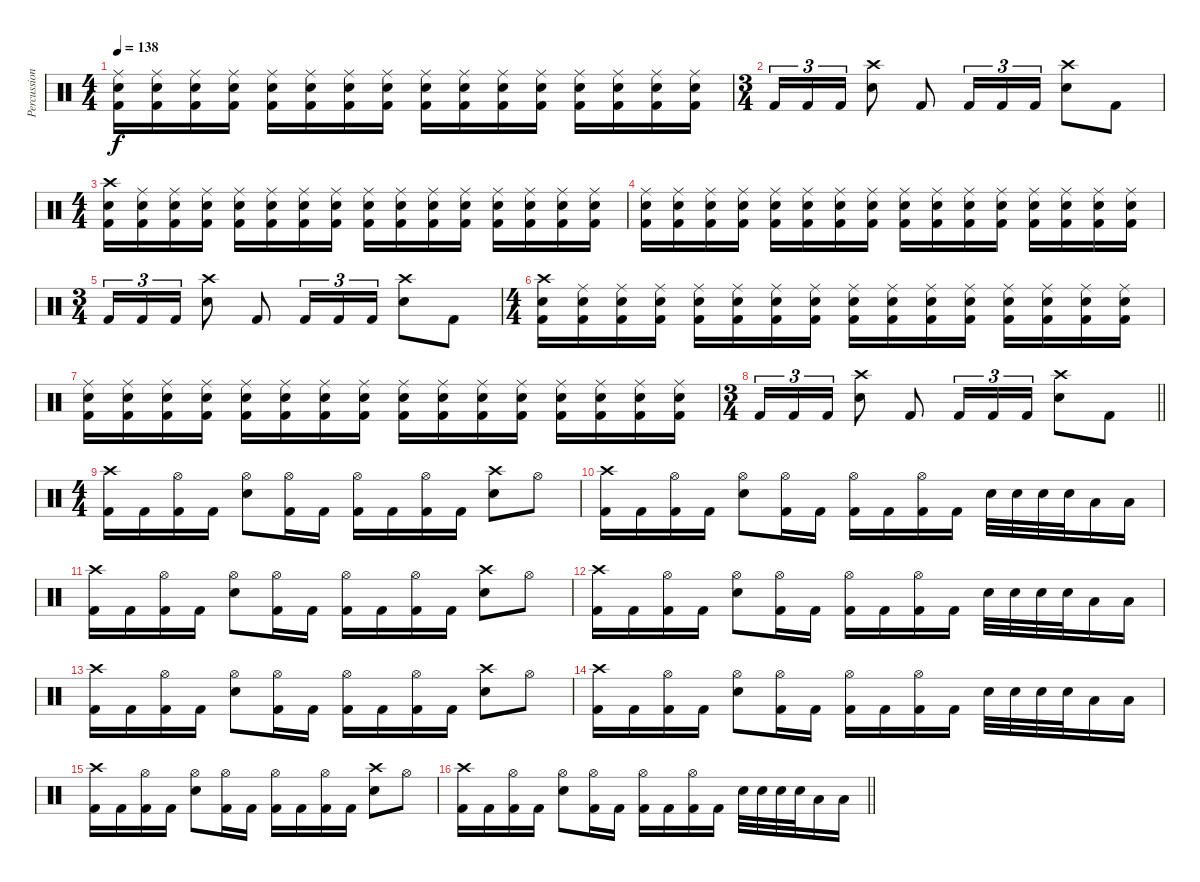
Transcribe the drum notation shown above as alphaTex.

\track ("Percussion" "Percussion") {instrument percussion}
\staff {score}
\articulation defaults
\ts (4 4)
\tempo 138
\clef neutral
\ks c
("Kick (hit) 2" "Electric Snare (hit)" "Ride (middle)").16{dy f} ("Kick (hit) 2" "Electric Snare (hit)" "Ride (middle)").16 ("Kick (hit) 2" "Electric Snare (hit)" "Ride (middle)").16 ("Kick (hit) 2" "Electric Snare (hit)" "Ride (middle)").16 ("Kick (hit) 2" "Electric Snare (hit)" "Ride (middle)").16 ("Kick (hit) 2" "Electric Snare (hit)" "Ride (middle)").16 ("Kick (hit) 2" "Electric Snare (hit)" "Ride (middle)").16 ("Kick (hit) 2" "Electric Snare (hit)" "Ride (middle)").16 ("Kick (hit) 2" "Electric Snare (hit)" "Ride (middle)").16 ("Kick (hit) 2" "Electric Snare (hit)" "Ride (middle)").16 ("Kick (hit) 2" "Electric Snare (hit)" "Ride (middle)").16 ("Kick (hit) 2" "Electric Snare (hit)" "Ride (middle)").16 ("Kick (hit) 2" "Electric Snare (hit)" "Ride (middle)").16 ("Kick (hit) 2" "Electric Snare (hit)" "Ride (middle)").16 ("Kick (hit) 2" "Electric Snare (hit)" "Ride (middle)").16 ("Kick (hit) 2" "Electric Snare (hit)" "Ride (middle)").16 |
\ts (3 4)
"Kick (hit) 2".16{tu (3 2)} "Kick (hit) 2".16{tu (3 2)} "Kick (hit) 2".16{tu (3 2)} ("Electric Snare (hit)" "Crash high (hit)").8 "Kick (hit) 2".8 "Kick (hit) 2".16{tu (3 2)} "Kick (hit) 2".16{tu (3 2)} "Kick (hit) 2".16{tu (3 2)} ("Electric Snare (hit)" "Crash high (hit)").8 "Kick (hit) 2".8 |
\ts (4 4)
("Kick (hit) 2" "Electric Snare (hit)" "Crash high (hit)").16 ("Kick (hit) 2" "Electric Snare (hit)" "Ride (middle)").16 ("Kick (hit) 2" "Electric Snare (hit)" "Ride (middle)").16 ("Kick (hit) 2" "Electric Snare (hit)" "Ride (middle)").16 ("Kick (hit) 2" "Electric Snare (hit)" "Ride (middle)").16 ("Kick (hit) 2" "Electric Snare (hit)" "Ride (middle)").16 ("Kick (hit) 2" "Electric Snare (hit)" "Ride (middle)").16 ("Kick (hit) 2" "Electric Snare (hit)" "Ride (middle)").16 ("Kick (hit) 2" "Electric Snare (hit)" "Ride (middle)").16 ("Kick (hit) 2" "Electric Snare (hit)" "Ride (middle)").16 ("Kick (hit) 2" "Electric Snare (hit)" "Ride (middle)").16 ("Kick (hit) 2" "Electric Snare (hit)" "Ride (middle)").16 ("Kick (hit) 2" "Electric Snare (hit)" "Ride (middle)").16 ("Kick (hit) 2" "Electric Snare (hit)" "Ride (middle)").16 ("Kick (hit) 2" "Electric Snare (hit)" "Ride (middle)").16 ("Kick (hit) 2" "Electric Snare (hit)" "Ride (middle)").16 |
("Kick (hit) 2" "Electric Snare (hit)" "Ride (middle)").16 ("Kick (hit) 2" "Electric Snare (hit)" "Ride (middle)").16 ("Kick (hit) 2" "Electric Snare (hit)" "Ride (middle)").16 ("Kick (hit) 2" "Electric Snare (hit)" "Ride (middle)").16 ("Kick (hit) 2" "Electric Snare (hit)" "Ride (middle)").16 ("Kick (hit) 2" "Electric Snare (hit)" "Ride (middle)").16 ("Kick (hit) 2" "Electric Snare (hit)" "Ride (middle)").16 ("Kick (hit) 2" "Electric Snare (hit)" "Ride (middle)").16 ("Kick (hit) 2" "Electric Snare (hit)" "Ride (middle)").16 ("Kick (hit) 2" "Electric Snare (hit)" "Ride (middle)").16 ("Kick (hit) 2" "Electric Snare (hit)" "Ride (middle)").16 ("Kick (hit) 2" "Electric Snare (hit)" "Ride (middle)").16 ("Kick (hit) 2" "Electric Snare (hit)" "Ride (middle)").16 ("Kick (hit) 2" "Electric Snare (hit)" "Ride (middle)").16 ("Kick (hit) 2" "Electric Snare (hit)" "Ride (middle)").16 ("Kick (hit) 2" "Electric Snare (hit)" "Ride (middle)").16 |
\ts (3 4)
"Kick (hit) 2".16{tu (3 2)} "Kick (hit) 2".16{tu (3 2)} "Kick (hit) 2".16{tu (3 2)} ("Electric Snare (hit)" "Crash high (hit)").8 "Kick (hit) 2".8 "Kick (hit) 2".16{tu (3 2)} "Kick (hit) 2".16{tu (3 2)} "Kick (hit) 2".16{tu (3 2)} ("Electric Snare (hit)" "Crash high (hit)").8 "Kick (hit) 2".8 |
\ts (4 4)
("Kick (hit) 2" "Electric Snare (hit)" "Crash high (hit)").16 ("Kick (hit) 2" "Electric Snare (hit)" "Ride (middle)").16 ("Kick (hit) 2" "Electric Snare (hit)" "Ride (middle)").16 ("Kick (hit) 2" "Electric Snare (hit)" "Ride (middle)").16 ("Kick (hit) 2" "Electric Snare (hit)" "Ride (middle)").16 ("Kick (hit) 2" "Electric Snare (hit)" "Ride (middle)").16 ("Kick (hit) 2" "Electric Snare (hit)" "Ride (middle)").16 ("Kick (hit) 2" "Electric Snare (hit)" "Ride (middle)").16 ("Kick (hit) 2" "Electric Snare (hit)" "Ride (middle)").16 ("Kick (hit) 2" "Electric Snare (hit)" "Ride (middle)").16 ("Kick (hit) 2" "Electric Snare (hit)" "Ride (middle)").16 ("Kick (hit) 2" "Electric Snare (hit)" "Ride (middle)").16 ("Kick (hit) 2" "Electric Snare (hit)" "Ride (middle)").16 ("Kick (hit) 2" "Electric Snare (hit)" "Ride (middle)").16 ("Kick (hit) 2" "Electric Snare (hit)" "Ride (middle)").16 ("Kick (hit) 2" "Electric Snare (hit)" "Ride (middle)").16 |
("Kick (hit) 2" "Electric Snare (hit)" "Ride (middle)").16 ("Kick (hit) 2" "Electric Snare (hit)" "Ride (middle)").16 ("Kick (hit) 2" "Electric Snare (hit)" "Ride (middle)").16 ("Kick (hit) 2" "Electric Snare (hit)" "Ride (middle)").16 ("Kick (hit) 2" "Electric Snare (hit)" "Ride (middle)").16 ("Kick (hit) 2" "Electric Snare (hit)" "Ride (middle)").16 ("Kick (hit) 2" "Electric Snare (hit)" "Ride (middle)").16 ("Kick (hit) 2" "Electric Snare (hit)" "Ride (middle)").16 ("Kick (hit) 2" "Electric Snare (hit)" "Ride (middle)").16 ("Kick (hit) 2" "Electric Snare (hit)" "Ride (middle)").16 ("Kick (hit) 2" "Electric Snare (hit)" "Ride (middle)").16 ("Kick (hit) 2" "Electric Snare (hit)" "Ride (middle)").16 ("Kick (hit) 2" "Electric Snare (hit)" "Ride (middle)").16 ("Kick (hit) 2" "Electric Snare (hit)" "Ride (middle)").16 ("Kick (hit) 2" "Electric Snare (hit)" "Ride (middle)").16 ("Kick (hit) 2" "Electric Snare (hit)" "Ride (middle)").16 |
\ts (3 4)
\barLineRight lightlight "Kick (hit) 2".16{tu (3 2)} "Kick (hit) 2".16{tu (3 2)} "Kick (hit) 2".16{tu (3 2)}
("Electric Snare (hit)" "Crash high (hit)").8 "Kick (hit) 2".8 "Kick (hit) 2".16{tu (3 2)} "Kick (hit) 2".16{tu (3 2)} "Kick (hit) 2".16{tu (3 2)} ("Electric Snare (hit)" "Crash high (hit)").8 "Kick (hit) 2".8 |
\ts (4 4)
\section ("" "")
("Kick (hit) 2" "Crash high (hit)").16 "Kick (hit) 2".16 ("Kick (hit) 2" "Hi-Hat (open)").16 "Kick (hit) 2".16 ("Electric Snare (hit)" "Hi-Hat (open)").8 ("Kick (hit) 2" "Hi-Hat (open)").16 "Kick (hit) 2".16 ("Kick (hit) 2" "Hi-Hat (open)").16 "Kick (hit) 2".16 ("Kick (hit) 2" "Hi-Hat (open)").16 "Kick (hit) 2".16 ("Electric Snare (hit)" "Crash high (hit)").8 "Hi-Hat (open)".8 |
("Kick (hit) 2" "Crash high (hit)").16 "Kick (hit) 2".16 ("Kick (hit) 2" "Hi-Hat (open)").16 "Kick (hit) 2".16 ("Electric Snare (hit)" "Hi-Hat (open)").8 ("Kick (hit) 2" "Hi-Hat (open)").16 "Kick (hit) 2".16 ("Kick (hit) 2" "Hi-Hat (open)").16 "Kick (hit) 2".16 ("Kick (hit) 2" "Hi-Hat (open)").16 "Kick (hit) 2".16 "Electric Snare (hit)".32 "Electric Snare (hit)".32 "Electric Snare (hit)".32 "Electric Snare (hit)".32 "Low Tom (hit)".16 "Low Tom (hit)".16 |
("Kick (hit) 2" "Crash high (hit)").16 "Kick (hit) 2".16 ("Kick (hit) 2" "Hi-Hat (open)").16 "Kick (hit) 2".16 ("Electric Snare (hit)" "Hi-Hat (open)").8 ("Kick (hit) 2" "Hi-Hat (open)").16 "Kick (hit) 2".16 ("Kick (hit) 2" "Hi-Hat (open)").16 "Kick (hit) 2".16 ("Kick (hit) 2" "Hi-Hat (open)").16 "Kick (hit) 2".16 ("Electric Snare (hit)" "Crash high (hit)").8 "Hi-Hat (open)".8 |
("Kick (hit) 2" "Crash high (hit)").16 "Kick (hit) 2".16 ("Kick (hit) 2" "Hi-Hat (open)").16 "Kick (hit) 2".16 ("Electric Snare (hit)" "Hi-Hat (open)").8 ("Kick (hit) 2" "Hi-Hat (open)").16 "Kick (hit) 2".16 ("Kick (hit) 2" "Hi-Hat (open)").16 "Kick (hit) 2".16 ("Kick (hit) 2" "Hi-Hat (open)").16 "Kick (hit) 2".16 "Electric Snare (hit)".32 "Electric Snare (hit)".32 "Electric Snare (hit)".32 "Electric Snare (hit)".32 "Low Tom (hit)".16 "Low Tom (hit)".16 |
("Kick (hit) 2" "Crash high (hit)").16 "Kick (hit) 2".16 ("Kick (hit) 2" "Hi-Hat (open)").16 "Kick (hit) 2".16 ("Electric Snare (hit)" "Hi-Hat (open)").8 ("Kick (hit) 2" "Hi-Hat (open)").16 "Kick (hit) 2".16 ("Kick (hit) 2" "Hi-Hat (open)").16 "Kick (hit) 2".16 ("Kick (hit) 2" "Hi-Hat (open)").16 "Kick (hit) 2".16 ("Electric Snare (hit)" "Crash high (hit)").8 "Hi-Hat (open)".8 |
("Kick (hit) 2" "Crash high (hit)").16 "Kick (hit) 2".16 ("Kick (hit) 2" "Hi-Hat (open)").16 "Kick (hit) 2".16 ("Electric Snare (hit)" "Hi-Hat (open)").8 ("Kick (hit) 2" "Hi-Hat (open)").16 "Kick (hit) 2".16 ("Kick (hit) 2" "Hi-Hat (open)").16 "Kick (hit) 2".16 ("Kick (hit) 2" "Hi-Hat (open)").16 "Kick (hit) 2".16 "Electric Snare (hit)".32 "Electric Snare (hit)".32 "Electric Snare (hit)".32 "Electric Snare (hit)".32 "Low Tom (hit)".16 "Low Tom (hit)".16 |
("Kick (hit) 2" "Crash high (hit)").16 "Kick (hit) 2".16 ("Kick (hit) 2" "Hi-Hat (open)").16 "Kick (hit) 2".16 ("Electric Snare (hit)" "Hi-Hat (open)").8 ("Kick (hit) 2" "Hi-Hat (open)").16 "Kick (hit) 2".16 ("Kick (hit) 2" "Hi-Hat (open)").16 "Kick (hit) 2".16 ("Kick (hit) 2" "Hi-Hat (open)").16 "Kick (hit) 2".16 ("Electric Snare (hit)" "Crash high (hit)").8 "Hi-Hat (open)".8 |
\barLineRight lightlight
("Kick (hit) 2" "Crash high (hit)").16 "Kick (hit) 2".16 ("Kick (hit) 2" "Hi-Hat (open)").16 "Kick (hit) 2".16 ("Electric Snare (hit)" "Hi-Hat (open)").8 ("Kick (hit) 2" "Hi-Hat (open)").16 "Kick (hit) 2".16 ("Kick (hit) 2" "Hi-Hat (open)").16 "Kick (hit) 2".16 ("Kick (hit) 2" "Hi-Hat (open)").16 "Kick (hit) 2".16 "Electric Snare (hit)".32 "Electric Snare (hit)".32 "Electric Snare (hit)".32 "Electric Snare (hit)".32 "Low Tom (hit)".16 "Low Tom (hit)".16
